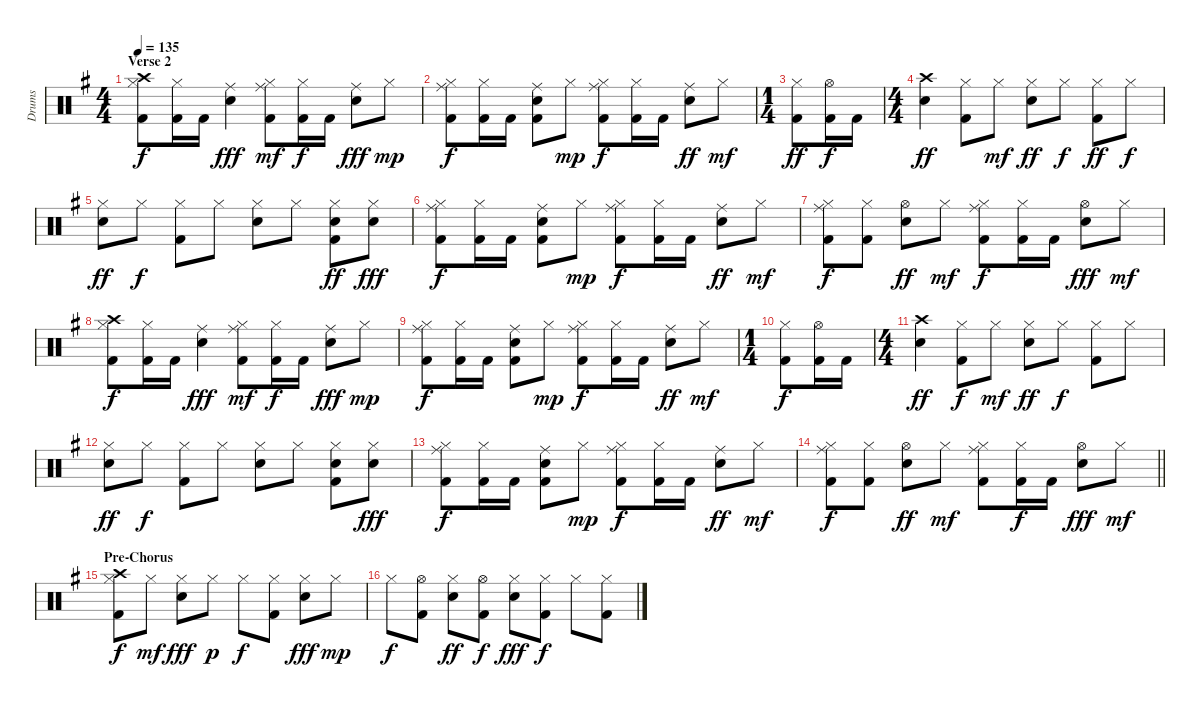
\track ("Drums" "Drums") {instrument percussion}
\staff {score}
\articulation defaults
\ts (4 4)
\section ("" "Verse 2")
\tempo 135
\clef neutral
\ks g
("Hi-Hat (closed)" "Crash high (hit)" "Kick (hit) 2").8{dy f} ("Hi-Hat (closed)" "Kick (hit) 2").16 "Kick (hit) 2".16 ("Ride (middle)" "Electric Snare (hit)").4{dy fff} ("Hi-Hat (closed)" "Ride (middle)" "Kick (hit) 2").8{dy mf} ("Hi-Hat (closed)" "Kick (hit) 2").16{dy f} "Kick (hit) 2".16 ("Ride (middle)" "Electric Snare (hit)").8{dy fff} "Hi-Hat (closed)".8{dy mp} |
("Hi-Hat (closed)" "Ride (middle)" "Kick (hit) 2").8{dy f} ("Hi-Hat (closed)" "Kick (hit) 2").16 "Kick (hit) 2".16 ("Ride (middle)" "Electric Snare (hit)" "Kick (hit) 2").8 "Hi-Hat (closed)".8{dy mp} ("Hi-Hat (closed)" "Ride (middle)" "Kick (hit) 2").8{dy f} ("Hi-Hat (closed)" "Kick (hit) 2").16 "Kick (hit) 2".16 ("Ride (middle)" "Electric Snare (hit)").8{dy ff} "Hi-Hat (closed)".8{dy mf} |
\ts (1 4)
("Hi-Hat (closed)" "Kick (hit) 2").8{dy ff} ("Hi-Hat (open)" "Kick (hit) 2").16{dy f} "Kick (hit) 2".16 |
\ts (4 4)
("Crash high (hit)" "Electric Snare (hit)").4{dy ff} ("Hi-Hat (closed)" "Kick (hit) 2").8 "Hi-Hat (closed)".8{dy mf} ("Hi-Hat (closed)" "Electric Snare (hit)").8{dy ff} "Hi-Hat (closed)".8{dy f} ("Hi-Hat (closed)" "Kick (hit) 2").8{dy ff} "Hi-Hat (closed)".8{dy f} |
("Hi-Hat (closed)" "Electric Snare (hit)").8{dy ff} "Hi-Hat (closed)".8{dy f} ("Hi-Hat (closed)" "Kick (hit) 2").8 "Hi-Hat (closed)".8 ("Hi-Hat (closed)" "Electric Snare (hit)").8 "Hi-Hat (closed)".8 ("Hi-Hat (closed)" "Electric Snare (hit)" "Kick (hit) 2").8{dy ff} ("Hi-Hat (closed)" "Electric Snare (hit)").8{dy fff} |
("Hi-Hat (closed)" "Ride (middle)" "Kick (hit) 2").8{dy f} ("Hi-Hat (closed)" "Kick (hit) 2").16 "Kick (hit) 2".16 ("Ride (middle)" "Electric Snare (hit)" "Kick (hit) 2").8 "Hi-Hat (closed)".8{dy mp} ("Hi-Hat (closed)" "Ride (middle)" "Kick (hit) 2").8{dy f} ("Hi-Hat (closed)" "Kick (hit) 2").16 "Kick (hit) 2".16 ("Ride (middle)" "Electric Snare (hit)").8{dy ff} "Hi-Hat (closed)".8{dy mf} |
("Hi-Hat (closed)" "Ride (middle)" "Kick (hit) 2").8{dy f} ("Hi-Hat (closed)" "Kick (hit) 2").8 ("Hi-Hat (open)" "Electric Snare (hit)").8{dy ff} "Hi-Hat (closed)".8{dy mf} ("Hi-Hat (closed)" "Ride (middle)" "Kick (hit) 2").8{dy f} ("Hi-Hat (closed)" "Kick (hit) 2").16 "Kick (hit) 2".16 ("Hi-Hat (open)" "Electric Snare (hit)").8{dy fff} "Hi-Hat (closed)".8{dy mf} |
("Hi-Hat (closed)" "Crash high (hit)" "Kick (hit) 2").8{dy f} ("Hi-Hat (closed)" "Kick (hit) 2").16 "Kick (hit) 2".16 ("Ride (middle)" "Electric Snare (hit)").4{dy fff} ("Hi-Hat (closed)" "Ride (middle)" "Kick (hit) 2").8{dy mf} ("Hi-Hat (closed)" "Kick (hit) 2").16{dy f} "Kick (hit) 2".16 ("Ride (middle)" "Electric Snare (hit)").8{dy fff} "Hi-Hat (closed)".8{dy mp} |
("Hi-Hat (closed)" "Ride (middle)" "Kick (hit) 2").8{dy f} ("Hi-Hat (closed)" "Kick (hit) 2").16 "Kick (hit) 2".16 ("Ride (middle)" "Electric Snare (hit)" "Kick (hit) 2").8 "Hi-Hat (closed)".8{dy mp} ("Hi-Hat (closed)" "Ride (middle)" "Kick (hit) 2").8{dy f} ("Hi-Hat (closed)" "Kick (hit) 2").16 "Kick (hit) 2".16 ("Ride (middle)" "Electric Snare (hit)").8{dy ff} "Hi-Hat (closed)".8{dy mf} |
\ts (1 4)
("Hi-Hat (closed)" "Kick (hit) 2").8{dy f} ("Hi-Hat (open)" "Kick (hit) 2").16 "Kick (hit) 2".16 |
\ts (4 4)
("Crash high (hit)" "Electric Snare (hit)").4{dy ff} ("Hi-Hat (closed)" "Kick (hit) 2").8{dy f} "Hi-Hat (closed)".8{dy mf} ("Hi-Hat (closed)" "Electric Snare (hit)").8{dy ff} "Hi-Hat (closed)".8{dy f} ("Hi-Hat (closed)" "Kick (hit) 2").8 "Hi-Hat (closed)".8 |
("Hi-Hat (closed)" "Electric Snare (hit)").8{dy ff} "Hi-Hat (closed)".8{dy f} ("Hi-Hat (closed)" "Kick (hit) 2").8 "Hi-Hat (closed)".8 ("Hi-Hat (closed)" "Electric Snare (hit)").8 "Hi-Hat (closed)".8 ("Hi-Hat (closed)" "Electric Snare (hit)" "Kick (hit) 2").8 ("Hi-Hat (closed)" "Electric Snare (hit)").8{dy fff} |
("Hi-Hat (closed)" "Ride (middle)" "Kick (hit) 2").8{dy f} ("Hi-Hat (closed)" "Kick (hit) 2").16 "Kick (hit) 2".16 ("Ride (middle)" "Electric Snare (hit)" "Kick (hit) 2").8 "Hi-Hat (closed)".8{dy mp} ("Hi-Hat (closed)" "Ride (middle)" "Kick (hit) 2").8{dy f} ("Hi-Hat (closed)" "Kick (hit) 2").16 "Kick (hit) 2".16 ("Ride (middle)" "Electric Snare (hit)").8{dy ff} "Hi-Hat (closed)".8{dy mf} |
\barLineRight lightlight
("Hi-Hat (closed)" "Ride (middle)" "Kick (hit) 2").8{dy f} ("Hi-Hat (closed)" "Kick (hit) 2").8 ("Hi-Hat (open)" "Electric Snare (hit)").8{dy ff} "Hi-Hat (closed)".8{dy mf} ("Hi-Hat (closed)" "Ride (middle)" "Kick (hit) 2").8 ("Hi-Hat (closed)" "Kick (hit) 2").16{dy f} "Kick (hit) 2".16 ("Hi-Hat (open)" "Electric Snare (hit)").8{dy fff} "Hi-Hat (closed)".8{dy mf} |
\section ("" "Pre-Chorus")
("Hi-Hat (closed)" "Crash high (hit)" "Kick (hit) 2").8{dy f} "Hi-Hat (closed)".8{dy mf} ("Hi-Hat (closed)" "Electric Snare (hit)").8{dy fff} "Hi-Hat (closed)".8{dy p} "Hi-Hat (closed)".8{dy f} ("Hi-Hat (closed)" "Kick (hit) 2").8 ("Hi-Hat (closed)" "Electric Snare (hit)").8{dy fff} "Hi-Hat (closed)".8{dy mp} |
"Hi-Hat (closed)".8{dy f} ("Hi-Hat (open)" "Kick (hit) 2").8 ("Hi-Hat (closed)" "Electric Snare (hit)").8{dy ff} ("Hi-Hat (open)" "Kick (hit) 2").8{dy f} ("Hi-Hat (closed)" "Electric Snare (hit)").8{dy fff} ("Hi-Hat (closed)" "Kick (hit) 2").8{dy f} "Hi-Hat (closed)".8 ("Hi-Hat (closed)" "Kick (hit) 2").8
